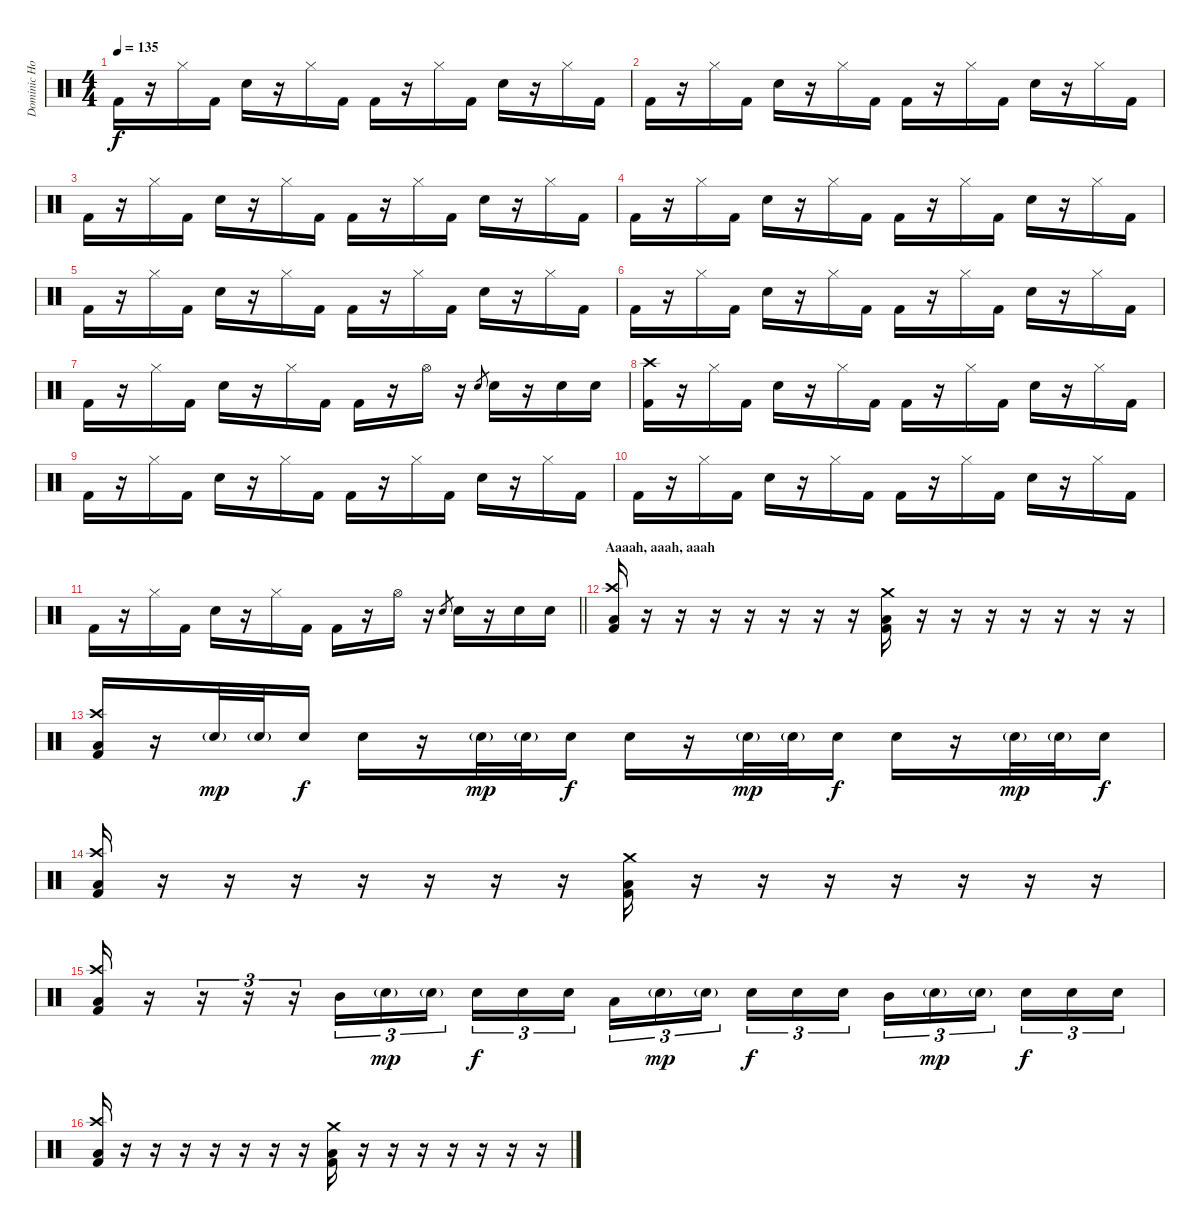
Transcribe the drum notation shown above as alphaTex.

\track ("Dominic Howard (Drums)" "Dominic Ho") {instrument percussion}
\staff {score}
\articulation defaults
\ts (4 4)
\tempo 135
\clef neutral
\ks c "Kick (hit) 2".16{dy f}
r.16 "Hi-Hat (closed)".16 "Kick (hit) 2".16 "Electric Snare (hit)".16 r.16 "Hi-Hat (closed)".16 "Kick (hit) 2".16 "Kick (hit) 2".16 r.16 "Hi-Hat (closed)".16 "Kick (hit) 2".16 "Electric Snare (hit)".16 r.16 "Hi-Hat (closed)".16 "Kick (hit) 2".16 |
"Kick (hit) 2".16 r.16 "Hi-Hat (closed)".16 "Kick (hit) 2".16 "Electric Snare (hit)".16 r.16 "Hi-Hat (closed)".16 "Kick (hit) 2".16 "Kick (hit) 2".16 r.16 "Hi-Hat (closed)".16 "Kick (hit) 2".16 "Electric Snare (hit)".16 r.16 "Hi-Hat (closed)".16 "Kick (hit) 2".16 |
"Kick (hit) 2".16 r.16 "Hi-Hat (closed)".16 "Kick (hit) 2".16 "Electric Snare (hit)".16 r.16 "Hi-Hat (closed)".16 "Kick (hit) 2".16 "Kick (hit) 2".16 r.16 "Hi-Hat (closed)".16 "Kick (hit) 2".16 "Electric Snare (hit)".16 r.16 "Hi-Hat (closed)".16 "Kick (hit) 2".16 |
"Kick (hit) 2".16 r.16 "Hi-Hat (closed)".16 "Kick (hit) 2".16 "Electric Snare (hit)".16 r.16 "Hi-Hat (closed)".16 "Kick (hit) 2".16 "Kick (hit) 2".16 r.16 "Hi-Hat (closed)".16 "Kick (hit) 2".16 "Electric Snare (hit)".16 r.16 "Hi-Hat (closed)".16 "Kick (hit) 2".16 |
"Kick (hit) 2".16 r.16 "Hi-Hat (closed)".16 "Kick (hit) 2".16 "Electric Snare (hit)".16 r.16 "Hi-Hat (closed)".16 "Kick (hit) 2".16 "Kick (hit) 2".16 r.16 "Hi-Hat (closed)".16 "Kick (hit) 2".16 "Electric Snare (hit)".16 r.16 "Hi-Hat (closed)".16 "Kick (hit) 2".16 |
"Kick (hit) 2".16 r.16 "Hi-Hat (closed)".16 "Kick (hit) 2".16 "Electric Snare (hit)".16 r.16 "Hi-Hat (closed)".16 "Kick (hit) 2".16 "Kick (hit) 2".16 r.16 "Hi-Hat (closed)".16 "Kick (hit) 2".16 "Electric Snare (hit)".16 r.16 "Hi-Hat (closed)".16 "Kick (hit) 2".16 |
"Kick (hit) 2".16 r.16 "Hi-Hat (closed)".16 "Kick (hit) 2".16 "Electric Snare (hit)".16 r.16 "Hi-Hat (closed)".16 "Kick (hit) 2".16 "Kick (hit) 2".16 r.16 "Hi-Hat (open)".16 r.16 "Electric Snare (hit)".8{gr} "Electric Snare (hit)".16 r.16 "Electric Snare (hit)".16 "Electric Snare (hit)".16 |
("Crash high (hit)" "Kick (hit) 2").16 r.16 "Hi-Hat (closed)".16 "Kick (hit) 2".16 "Electric Snare (hit)".16 r.16 "Hi-Hat (closed)".16 "Kick (hit) 2".16 "Kick (hit) 2".16 r.16 "Hi-Hat (closed)".16 "Kick (hit) 2".16 "Electric Snare (hit)".16 r.16 "Hi-Hat (closed)".16 "Kick (hit) 2".16 |
"Kick (hit) 2".16 r.16 "Hi-Hat (closed)".16 "Kick (hit) 2".16 "Electric Snare (hit)".16 r.16 "Hi-Hat (closed)".16 "Kick (hit) 2".16 "Kick (hit) 2".16 r.16 "Hi-Hat (closed)".16 "Kick (hit) 2".16 "Electric Snare (hit)".16 r.16 "Hi-Hat (closed)".16 "Kick (hit) 2".16 |
"Kick (hit) 2".16 r.16 "Hi-Hat (closed)".16 "Kick (hit) 2".16 "Electric Snare (hit)".16 r.16 "Hi-Hat (closed)".16 "Kick (hit) 2".16 "Kick (hit) 2".16 r.16 "Hi-Hat (closed)".16 "Kick (hit) 2".16 "Electric Snare (hit)".16 r.16 "Hi-Hat (closed)".16 "Kick (hit) 2".16 |
\barLineRight lightlight "Kick (hit) 2".16
r.16 "Hi-Hat (closed)".16 "Kick (hit) 2".16 "Electric Snare (hit)".16 r.16 "Hi-Hat (closed)".16 "Kick (hit) 2".16 "Kick (hit) 2".16 r.16 "Hi-Hat (open)".16 r.16 "Electric Snare (hit)".8{gr} "Electric Snare (hit)".16 r.16 "Electric Snare (hit)".16 "Electric Snare (hit)".16 |
\section ("" "Aaaah, aaah, aaah")
("Crash high (hit)" "Low Floor Tom (hit)" "Kick (hit) 2").16 r.16 r.16 r.16 r.16 r.16 r.16 r.16 ("Crash medium (hit)" "Low Floor Tom (hit)" "Kick (hit) 2").16 r.16 r.16 r.16 r.16 r.16 r.16 r.16 |
("Crash high (hit)" "Low Floor Tom (hit)" "Kick (hit) 2").16 r.16 "Electric Snare (hit)"{g}.32{dy mp} "Electric Snare (hit)"{g}.32 "Electric Snare (hit)".16{dy f} "Electric Snare (hit)".16 r.16 "Electric Snare (hit)"{g}.32{dy mp} "Electric Snare (hit)"{g}.32 "Electric Snare (hit)".16{dy f} "Electric Snare (hit)".16 r.16 "Electric Snare (hit)"{g}.32{dy mp} "Electric Snare (hit)"{g}.32 "Electric Snare (hit)".16{dy f} "Electric Snare (hit)".16 r.16 "Electric Snare (hit)"{g}.32{dy mp} "Electric Snare (hit)"{g}.32 "Electric Snare (hit)".16{dy f} |
("Crash high (hit)" "Low Floor Tom (hit)" "Kick (hit) 2").16 r.16 r.16 r.16 r.16 r.16 r.16 r.16 ("Crash medium (hit)" "Low Floor Tom (hit)" "Kick (hit) 2").16 r.16 r.16 r.16 r.16 r.16 r.16 r.16 |
("Crash high (hit)" "Low Floor Tom (hit)" "Kick (hit) 2").16 r.16 r.16{tu (3 2)} r.16{tu (3 2)} r.16{tu (3 2)} "Mid Tom (hit)".16{tu (3 2)} "Electric Snare (hit)"{g}.16{tu (3 2) dy mp} "Electric Snare (hit)"{g}.16{tu (3 2) beam splitsecondary} "Electric Snare (hit)".16{tu (3 2) dy f} "Electric Snare (hit)".16{tu (3 2)} "Electric Snare (hit)".16{tu (3 2)} "Low Tom (hit)".16{tu (3 2)} "Electric Snare (hit)"{g}.16{tu (3 2) dy mp} "Electric Snare (hit)"{g}.16{tu (3 2) beam splitsecondary} "Electric Snare (hit)".16{tu (3 2) dy f} "Electric Snare (hit)".16{tu (3 2)} "Electric Snare (hit)".16{tu (3 2)} "Mid Tom (hit)".16{tu (3 2)} "Electric Snare (hit)"{g}.16{tu (3 2) dy mp} "Electric Snare (hit)"{g}.16{tu (3 2) beam splitsecondary} "Electric Snare (hit)".16{tu (3 2) dy f} "Electric Snare (hit)".16{tu (3 2)} "Electric Snare (hit)".16{tu (3 2)} |
("Crash high (hit)" "Low Floor Tom (hit)" "Kick (hit) 2").16 r.16 r.16 r.16 r.16 r.16 r.16 r.16 ("Crash medium (hit)" "Low Floor Tom (hit)" "Kick (hit) 2").16 r.16 r.16 r.16 r.16 r.16 r.16 r.16
